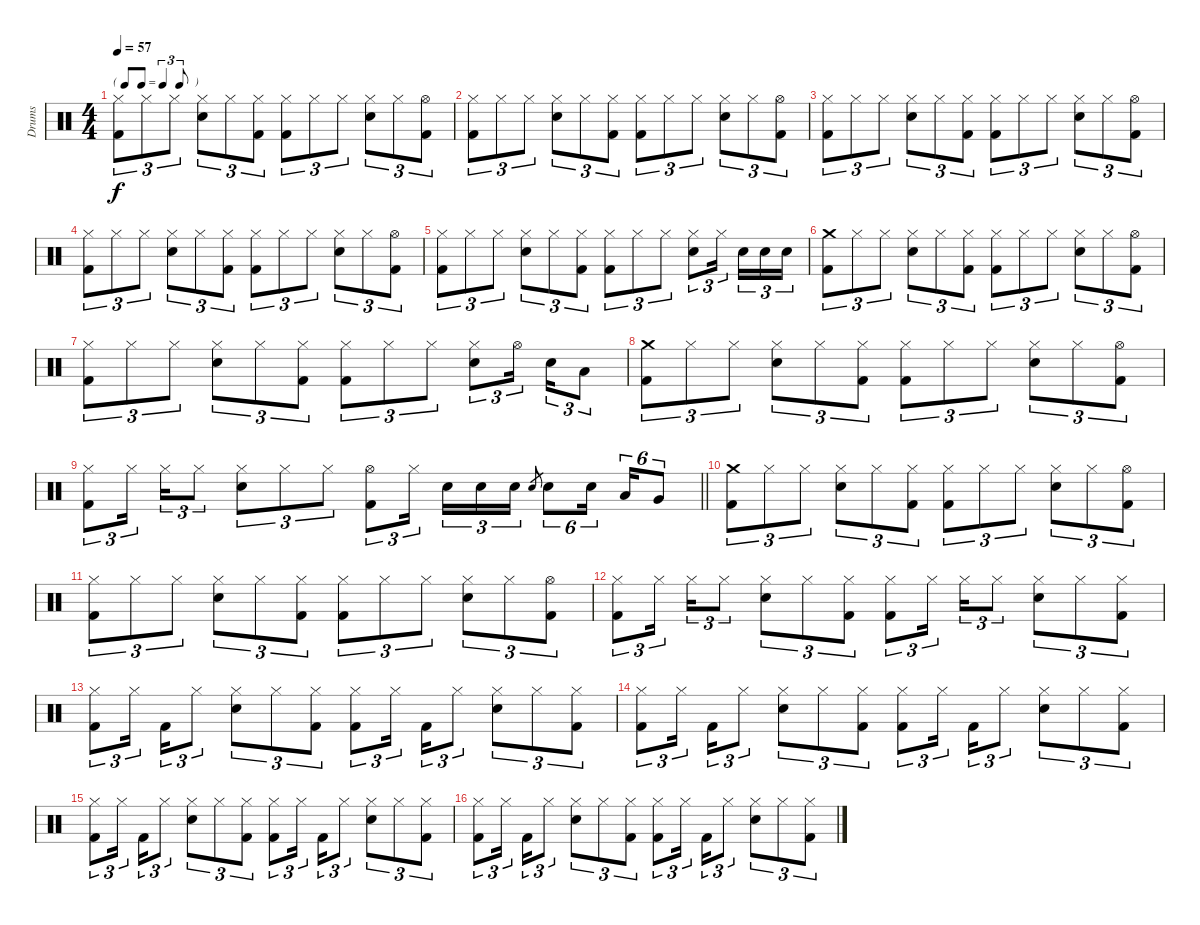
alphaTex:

\track ("Drums" "Drums") {instrument percussion}
\staff {score}
\articulation defaults
\ts (4 4)
\tf triplet8th
\tempo 57
\clef neutral
\ks c
("Hi-Hat (closed)" "Kick (hit) 2").8{tu (3 2) dy f} "Hi-Hat (closed)".8{tu (3 2)} "Hi-Hat (closed)".8{tu (3 2)} ("Hi-Hat (closed)" "Snare (hit) 2").8{tu (3 2)} "Hi-Hat (closed)".8{tu (3 2)} ("Hi-Hat (closed)" "Kick (hit) 2").8{tu (3 2)} ("Hi-Hat (closed)" "Kick (hit) 2").8{tu (3 2)} "Hi-Hat (closed)".8{tu (3 2)} "Hi-Hat (closed)".8{tu (3 2)} ("Hi-Hat (closed)" "Snare (hit) 2").8{tu (3 2)} "Hi-Hat (closed)".8{tu (3 2)} ("Hi-Hat (open)" "Kick (hit) 2").8{tu (3 2)} |
("Hi-Hat (closed)" "Kick (hit) 2").8{tu (3 2)} "Hi-Hat (closed)".8{tu (3 2)} "Hi-Hat (closed)".8{tu (3 2)} ("Hi-Hat (closed)" "Snare (hit) 2").8{tu (3 2)} "Hi-Hat (closed)".8{tu (3 2)} ("Hi-Hat (closed)" "Kick (hit) 2").8{tu (3 2)} ("Hi-Hat (closed)" "Kick (hit) 2").8{tu (3 2)} "Hi-Hat (closed)".8{tu (3 2)} "Hi-Hat (closed)".8{tu (3 2)} ("Hi-Hat (closed)" "Snare (hit) 2").8{tu (3 2)} "Hi-Hat (closed)".8{tu (3 2)} ("Hi-Hat (open)" "Kick (hit) 2").8{tu (3 2)} |
("Hi-Hat (closed)" "Kick (hit) 2").8{tu (3 2)} "Hi-Hat (closed)".8{tu (3 2)} "Hi-Hat (closed)".8{tu (3 2)} ("Hi-Hat (closed)" "Snare (hit) 2").8{tu (3 2)} "Hi-Hat (closed)".8{tu (3 2)} ("Hi-Hat (closed)" "Kick (hit) 2").8{tu (3 2)} ("Hi-Hat (closed)" "Kick (hit) 2").8{tu (3 2)} "Hi-Hat (closed)".8{tu (3 2)} "Hi-Hat (closed)".8{tu (3 2)} ("Hi-Hat (closed)" "Snare (hit) 2").8{tu (3 2)} "Hi-Hat (closed)".8{tu (3 2)} ("Hi-Hat (open)" "Kick (hit) 2").8{tu (3 2)} |
("Hi-Hat (closed)" "Kick (hit) 2").8{tu (3 2)} "Hi-Hat (closed)".8{tu (3 2)} "Hi-Hat (closed)".8{tu (3 2)} ("Hi-Hat (closed)" "Snare (hit) 2").8{tu (3 2)} "Hi-Hat (closed)".8{tu (3 2)} ("Hi-Hat (closed)" "Kick (hit) 2").8{tu (3 2)} ("Hi-Hat (closed)" "Kick (hit) 2").8{tu (3 2)} "Hi-Hat (closed)".8{tu (3 2)} "Hi-Hat (closed)".8{tu (3 2)} ("Hi-Hat (closed)" "Snare (hit) 2").8{tu (3 2)} "Hi-Hat (closed)".8{tu (3 2)} ("Hi-Hat (open)" "Kick (hit) 2").8{tu (3 2)} |
("Hi-Hat (closed)" "Kick (hit) 2").8{tu (3 2)} "Hi-Hat (closed)".8{tu (3 2)} "Hi-Hat (closed)".8{tu (3 2)} ("Hi-Hat (closed)" "Snare (hit) 2").8{tu (3 2)} "Hi-Hat (closed)".8{tu (3 2)} ("Hi-Hat (closed)" "Kick (hit) 2").8{tu (3 2)} ("Hi-Hat (closed)" "Kick (hit) 2").8{tu (3 2)} "Hi-Hat (closed)".8{tu (3 2)} "Hi-Hat (closed)".8{tu (3 2)} ("Hi-Hat (closed)" "Snare (hit) 2").8{tu (3 2)} "Hi-Hat (closed)".16{tu (3 2)} "Snare (hit) 2".16{tu (3 2)} "Snare (hit) 2".16{tu (3 2)} "Snare (hit) 2".16{tu (3 2)} |
("Crash medium (hit)" "Kick (hit) 2").8{tu (3 2)} "Hi-Hat (closed)".8{tu (3 2)} "Hi-Hat (closed)".8{tu (3 2)} ("Hi-Hat (closed)" "Snare (hit) 2").8{tu (3 2)} "Hi-Hat (closed)".8{tu (3 2)} ("Hi-Hat (closed)" "Kick (hit) 2").8{tu (3 2)} ("Hi-Hat (closed)" "Kick (hit) 2").8{tu (3 2)} "Hi-Hat (closed)".8{tu (3 2)} "Hi-Hat (closed)".8{tu (3 2)} ("Hi-Hat (closed)" "Snare (hit) 2").8{tu (3 2)} "Hi-Hat (closed)".8{tu (3 2)} ("Hi-Hat (open)" "Kick (hit) 2").8{tu (3 2)} |
("Hi-Hat (closed)" "Kick (hit) 2").8{tu (3 2)} "Hi-Hat (closed)".8{tu (3 2)} "Hi-Hat (closed)".8{tu (3 2)} ("Hi-Hat (closed)" "Snare (hit) 2").8{tu (3 2)} "Hi-Hat (closed)".8{tu (3 2)} ("Hi-Hat (closed)" "Kick (hit) 2").8{tu (3 2)} ("Hi-Hat (closed)" "Kick (hit) 2").8{tu (3 2)} "Hi-Hat (closed)".8{tu (3 2)} "Hi-Hat (closed)".8{tu (3 2)} ("Hi-Hat (closed)" "Snare (hit) 2").8{tu (3 2)} "Hi-Hat (open)".16{tu (3 2)} "Snare (hit) 2".16{tu (3 2)} "Low Tom (hit)".8{tu (3 2)} |
("Crash medium (hit)" "Kick (hit) 2").8{tu (3 2)} "Hi-Hat (closed)".8{tu (3 2)} "Hi-Hat (closed)".8{tu (3 2)} ("Hi-Hat (closed)" "Snare (hit) 2").8{tu (3 2)} "Hi-Hat (closed)".8{tu (3 2)} ("Hi-Hat (closed)" "Kick (hit) 2").8{tu (3 2)} ("Hi-Hat (closed)" "Kick (hit) 2").8{tu (3 2)} "Hi-Hat (closed)".8{tu (3 2)} "Hi-Hat (closed)".8{tu (3 2)} ("Hi-Hat (closed)" "Snare (hit) 2").8{tu (3 2)} "Hi-Hat (closed)".8{tu (3 2)} ("Hi-Hat (open)" "Kick (hit) 2").8{tu (3 2)} |
\barLineRight lightlight
("Hi-Hat (closed)" "Kick (hit) 2").8{tu (3 2)} "Hi-Hat (closed)".16{tu (3 2)} "Hi-Hat (closed)".16{tu (3 2)} "Hi-Hat (closed)".8{tu (3 2)} ("Hi-Hat (closed)" "Snare (hit) 2").8{tu (3 2)} "Hi-Hat (closed)".8{tu (3 2)} "Hi-Hat (closed)".8{tu (3 2)} ("Hi-Hat (open)" "Kick (hit) 2").8{tu (3 2)} "Hi-Hat (closed)".16{tu (3 2)} "Snare (hit) 2".16{tu (3 2)} "Snare (hit) 2".16{tu (3 2)} "Snare (hit) 2".16{tu (3 2)} "Snare (hit) 2".8{gr} "Snare (hit) 2".8{tu (6 4)} "Snare (hit) 2".16{tu (6 4)} "Low Tom (hit)".16{tu (6 4)} "Very Low Tom (hit)".8{tu (6 4)} |
("Crash medium (hit)" "Kick (hit) 2").8{tu (3 2)} "Hi-Hat (closed)".8{tu (3 2)} "Hi-Hat (closed)".8{tu (3 2)} ("Hi-Hat (closed)" "Snare (hit) 2").8{tu (3 2)} "Hi-Hat (closed)".8{tu (3 2)} ("Hi-Hat (closed)" "Kick (hit) 2").8{tu (3 2)} ("Hi-Hat (closed)" "Kick (hit) 2").8{tu (3 2)} "Hi-Hat (closed)".8{tu (3 2)} "Hi-Hat (closed)".8{tu (3 2)} ("Hi-Hat (closed)" "Snare (hit) 2").8{tu (3 2)} "Hi-Hat (closed)".8{tu (3 2)} ("Hi-Hat (open)" "Kick (hit) 2").8{tu (3 2)} |
("Hi-Hat (closed)" "Kick (hit) 2").8{tu (3 2)} "Hi-Hat (closed)".8{tu (3 2)} "Hi-Hat (closed)".8{tu (3 2)} ("Hi-Hat (closed)" "Snare (hit) 2").8{tu (3 2)} "Hi-Hat (closed)".8{tu (3 2)} ("Hi-Hat (closed)" "Kick (hit) 2").8{tu (3 2)} ("Hi-Hat (closed)" "Kick (hit) 2").8{tu (3 2)} "Hi-Hat (closed)".8{tu (3 2)} "Hi-Hat (closed)".8{tu (3 2)} ("Hi-Hat (closed)" "Snare (hit) 2").8{tu (3 2)} "Hi-Hat (closed)".8{tu (3 2)} ("Hi-Hat (open)" "Kick (hit) 2").8{tu (3 2)} |
("Hi-Hat (closed)" "Kick (hit) 2").8{tu (3 2)} "Hi-Hat (closed)".16{tu (3 2)} "Hi-Hat (closed)".16{tu (3 2)} "Hi-Hat (closed)".8{tu (3 2)} ("Hi-Hat (closed)" "Snare (hit) 2").8{tu (3 2)} "Hi-Hat (closed)".8{tu (3 2)} ("Hi-Hat (closed)" "Kick (hit) 2").8{tu (3 2)} ("Hi-Hat (closed)" "Kick (hit) 2").8{tu (3 2)} "Hi-Hat (closed)".16{tu (3 2)} "Hi-Hat (closed)".16{tu (3 2)} "Hi-Hat (closed)".8{tu (3 2)} ("Hi-Hat (closed)" "Snare (hit) 2").8{tu (3 2)} "Hi-Hat (closed)".8{tu (3 2)} ("Hi-Hat (closed)" "Kick (hit) 2").8{tu (3 2)} |
("Hi-Hat (closed)" "Kick (hit) 2").8{tu (3 2)} "Hi-Hat (closed)".16{tu (3 2)} "Kick (hit) 2".16{tu (3 2)} "Hi-Hat (closed)".8{tu (3 2)} ("Hi-Hat (closed)" "Snare (hit) 2").8{tu (3 2)} "Hi-Hat (closed)".8{tu (3 2)} ("Hi-Hat (closed)" "Kick (hit) 2").8{tu (3 2)} ("Hi-Hat (closed)" "Kick (hit) 2").8{tu (3 2)} "Hi-Hat (closed)".16{tu (3 2)} "Kick (hit) 2".16{tu (3 2)} "Hi-Hat (closed)".8{tu (3 2)} ("Hi-Hat (closed)" "Snare (hit) 2").8{tu (3 2)} "Hi-Hat (closed)".8{tu (3 2)} ("Hi-Hat (closed)" "Kick (hit) 2").8{tu (3 2)} |
("Hi-Hat (closed)" "Kick (hit) 2").8{tu (3 2)} "Hi-Hat (closed)".16{tu (3 2)} "Kick (hit) 2".16{tu (3 2)} "Hi-Hat (closed)".8{tu (3 2)} ("Hi-Hat (closed)" "Snare (hit) 2").8{tu (3 2)} "Hi-Hat (closed)".8{tu (3 2)} ("Hi-Hat (closed)" "Kick (hit) 2").8{tu (3 2)} ("Hi-Hat (closed)" "Kick (hit) 2").8{tu (3 2)} "Hi-Hat (closed)".16{tu (3 2)} "Kick (hit) 2".16{tu (3 2)} "Hi-Hat (closed)".8{tu (3 2)} ("Hi-Hat (closed)" "Snare (hit) 2").8{tu (3 2)} "Hi-Hat (closed)".8{tu (3 2)} ("Hi-Hat (closed)" "Kick (hit) 2").8{tu (3 2)} |
("Hi-Hat (closed)" "Kick (hit) 2").8{tu (3 2)} "Hi-Hat (closed)".16{tu (3 2)} "Kick (hit) 2".16{tu (3 2)} "Hi-Hat (closed)".8{tu (3 2)} ("Hi-Hat (closed)" "Snare (hit) 2").8{tu (3 2)} "Hi-Hat (closed)".8{tu (3 2)} ("Hi-Hat (closed)" "Kick (hit) 2").8{tu (3 2)} ("Hi-Hat (closed)" "Kick (hit) 2").8{tu (3 2)} "Hi-Hat (closed)".16{tu (3 2)} "Kick (hit) 2".16{tu (3 2)} "Hi-Hat (closed)".8{tu (3 2)} ("Hi-Hat (closed)" "Snare (hit) 2").8{tu (3 2)} "Hi-Hat (closed)".8{tu (3 2)} ("Hi-Hat (closed)" "Kick (hit) 2").8{tu (3 2)} |
("Hi-Hat (closed)" "Kick (hit) 2").8{tu (3 2)} "Hi-Hat (closed)".16{tu (3 2)} "Kick (hit) 2".16{tu (3 2)} "Hi-Hat (closed)".8{tu (3 2)} ("Hi-Hat (closed)" "Snare (hit) 2").8{tu (3 2)} "Hi-Hat (closed)".8{tu (3 2)} ("Hi-Hat (closed)" "Kick (hit) 2").8{tu (3 2)} ("Hi-Hat (closed)" "Kick (hit) 2").8{tu (3 2)} "Hi-Hat (closed)".16{tu (3 2)} "Kick (hit) 2".16{tu (3 2)} "Hi-Hat (closed)".8{tu (3 2)} ("Hi-Hat (closed)" "Snare (hit) 2").8{tu (3 2)} "Hi-Hat (closed)".8{tu (3 2)} ("Hi-Hat (closed)" "Kick (hit) 2").8{tu (3 2)}
